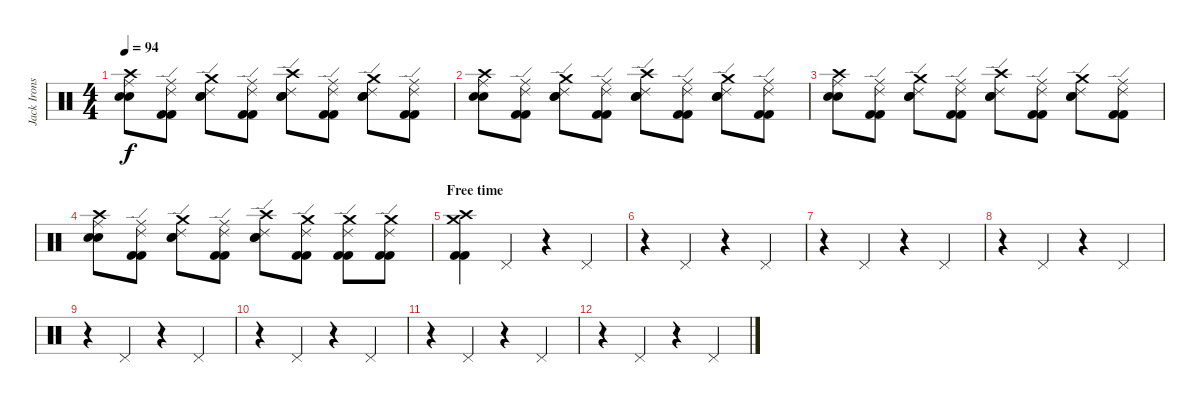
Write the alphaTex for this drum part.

\track ("Jack Irons" "Jack Irons") {instrument percussion}
\staff {score}
\articulation defaults
\ts (4 4)
\tempo 94
\clef neutral
\ks c
("Electric Snare (hit)" "Electric Snare (hit)" "Ride (middle)" "Crash high (hit)").8{dy f} ("Kick (hit) 2" "Kick (hit) 2" "Ride (middle)" "Ride (edge) 2").8 ("Electric Snare (hit)" "Electric Snare (hit)" "Crash medium (hit)" "Ride (edge) 2").8 ("Kick (hit) 2" "Kick (hit) 2" "Ride (middle)" "Ride (edge) 2").8 ("Electric Snare (hit)" "Electric Snare (hit)" "Crash high (hit)" "Ride (edge) 2").8 ("Kick (hit) 2" "Kick (hit) 2" "Ride (middle)" "Ride (edge) 2").8 ("Electric Snare (hit)" "Electric Snare (hit)" "Crash medium (hit)" "Ride (edge) 2").8 ("Kick (hit) 2" "Kick (hit) 2" "Ride (middle)" "Ride (edge) 2").8 |
("Electric Snare (hit)" "Electric Snare (hit)" "Ride (middle)" "Crash high (hit)").8 ("Kick (hit) 2" "Kick (hit) 2" "Ride (middle)" "Ride (edge) 2").8 ("Electric Snare (hit)" "Electric Snare (hit)" "Crash medium (hit)" "Ride (edge) 2").8 ("Kick (hit) 2" "Kick (hit) 2" "Ride (middle)" "Ride (edge) 2").8 ("Electric Snare (hit)" "Electric Snare (hit)" "Crash high (hit)" "Ride (edge) 2").8 ("Kick (hit) 2" "Kick (hit) 2" "Ride (middle)" "Ride (edge) 2").8 ("Electric Snare (hit)" "Electric Snare (hit)" "Crash medium (hit)" "Ride (edge) 2").8 ("Kick (hit) 2" "Kick (hit) 2" "Ride (middle)" "Ride (edge) 2").8 |
("Electric Snare (hit)" "Electric Snare (hit)" "Ride (middle)" "Crash high (hit)").8 ("Kick (hit) 2" "Kick (hit) 2" "Ride (middle)" "Ride (edge) 2").8 ("Electric Snare (hit)" "Electric Snare (hit)" "Crash medium (hit)" "Ride (edge) 2").8 ("Kick (hit) 2" "Kick (hit) 2" "Ride (middle)" "Ride (edge) 2").8 ("Electric Snare (hit)" "Electric Snare (hit)" "Crash high (hit)" "Ride (edge) 2").8 ("Kick (hit) 2" "Kick (hit) 2" "Ride (middle)" "Ride (edge) 2").8 ("Electric Snare (hit)" "Electric Snare (hit)" "Crash medium (hit)" "Ride (edge) 2").8 ("Kick (hit) 2" "Kick (hit) 2" "Ride (middle)" "Ride (edge) 2").8 |
("Electric Snare (hit)" "Electric Snare (hit)" "Ride (middle)" "Crash high (hit)").8 ("Kick (hit) 2" "Kick (hit) 2" "Ride (middle)" "Ride (edge) 2").8 ("Electric Snare (hit)" "Electric Snare (hit)" "Crash medium (hit)" "Ride (edge) 2").8 ("Kick (hit) 2" "Kick (hit) 2" "Ride (middle)" "Ride (edge) 2").8 ("Electric Snare (hit)" "Electric Snare (hit)" "Crash high (hit)" "Ride (edge) 2").8 ("Kick (hit) 2" "Kick (hit) 2" "Crash medium (hit)" "Ride (edge) 2").8 ("Kick (hit) 2" "Kick (hit) 2" "Crash medium (hit)" "Ride (edge) 2").8 ("Kick (hit) 2" "Kick (hit) 2" "Crash medium (hit)" "Ride (edge) 2").8 |
\section ("" "Free time")
("Kick (hit) 2" "Kick (hit) 2" "Crash high (hit)" "Crash medium (hit)").4 "Pedal Hi-Hat (hit)".4 r.4 "Pedal Hi-Hat (hit)".4 |
r.4 "Pedal Hi-Hat (hit)".4 r.4 "Pedal Hi-Hat (hit)".4 |
r.4 "Pedal Hi-Hat (hit)".4 r.4 "Pedal Hi-Hat (hit)".4 |
r.4 "Pedal Hi-Hat (hit)".4 r.4 "Pedal Hi-Hat (hit)".4 |
r.4 "Pedal Hi-Hat (hit)".4 r.4 "Pedal Hi-Hat (hit)".4 |
r.4 "Pedal Hi-Hat (hit)".4 r.4 "Pedal Hi-Hat (hit)".4 |
r.4 "Pedal Hi-Hat (hit)".4 r.4 "Pedal Hi-Hat (hit)".4 |
r.4 "Pedal Hi-Hat (hit)".4 r.4 "Pedal Hi-Hat (hit)".4
